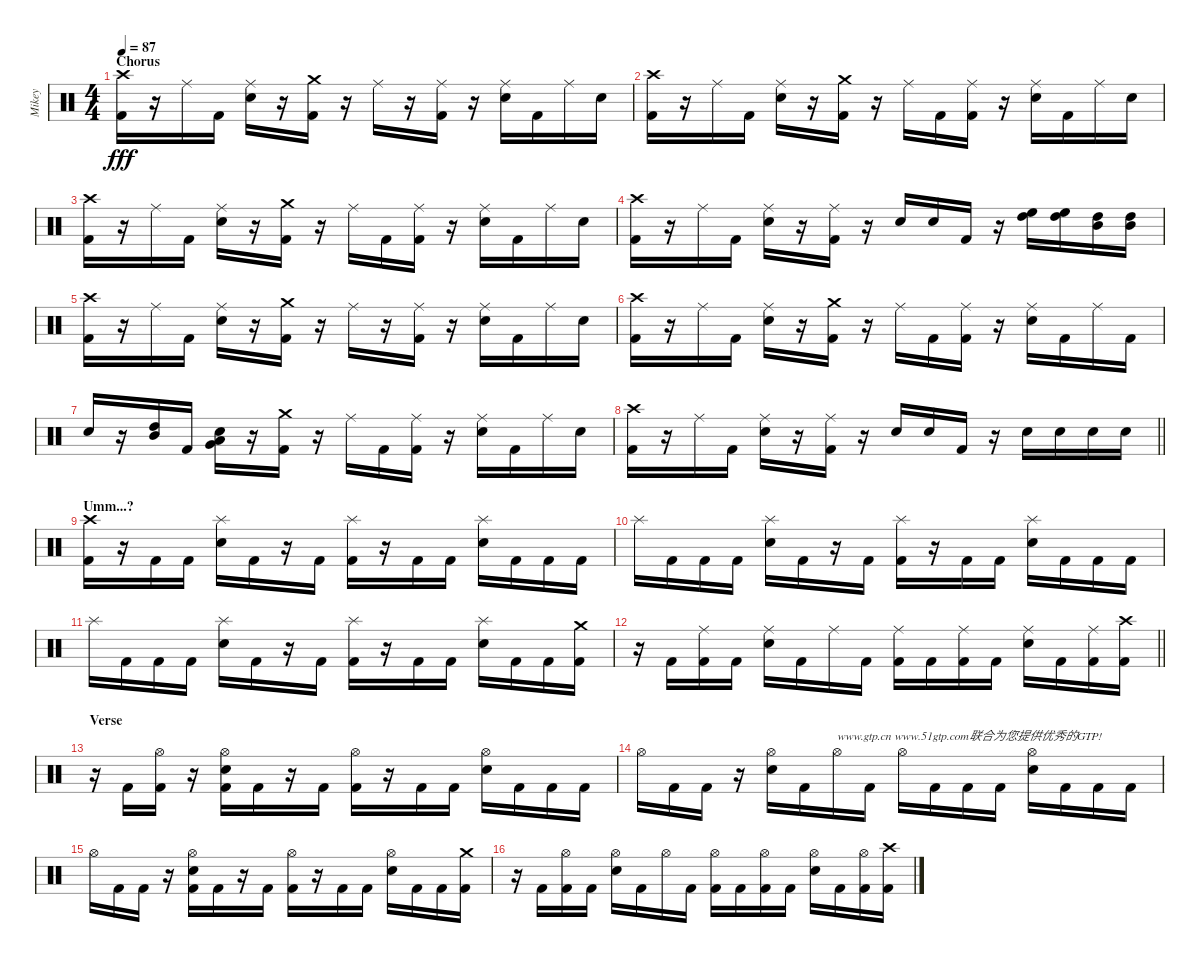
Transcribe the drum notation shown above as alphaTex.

\track ("Mikey" "Mikey") {instrument percussion}
\staff {score}
\articulation defaults
\ts (4 4)
\section ("" "Chorus")
\tempo 87
\clef neutral
\ks c
("Kick (hit) 2" "Crash high (hit)").16{dy fff} r.16 "Ride (middle)".16 "Kick (hit) 2".16 ("Electric Snare (hit)" "Ride (middle)").16 r.16 ("Crash medium (hit)" "Kick (hit) 2").16 r.16 "Ride (middle)".16 r.16 ("Kick (hit) 2" "Ride (middle)").16 r.16 ("Electric Snare (hit)" "Ride (middle)").16 "Kick (hit) 2".16 "Ride (middle)".16 "Electric Snare (hit)".16 |
("Kick (hit) 2" "Crash high (hit)").16 r.16 "Ride (middle)".16 "Kick (hit) 2".16 ("Electric Snare (hit)" "Ride (middle)").16 r.16 ("Crash medium (hit)" "Kick (hit) 2").16 r.16 "Ride (middle)".16 "Kick (hit) 2".16 ("Kick (hit) 2" "Ride (middle)").16 r.16 ("Electric Snare (hit)" "Ride (middle)").16 "Kick (hit) 2".16 "Ride (middle)".16 "Electric Snare (hit)".16 |
("Kick (hit) 2" "Crash high (hit)").16 r.16 "Ride (middle)".16 "Kick (hit) 2".16 ("Ride (middle)" "Electric Snare (hit)").16 r.16 ("Crash medium (hit)" "Kick (hit) 2").16 r.16 "Ride (middle)".16 "Kick (hit) 2".16 ("Ride (middle)" "Kick (hit) 2").16 r.16 ("Electric Snare (hit)" "Ride (middle)").16 "Kick (hit) 2".16 "Ride (middle)".16 "Electric Snare (hit)".16 |
("Kick (hit) 2" "Crash high (hit)").16 r.16 "Ride (middle)".16 "Kick (hit) 2".16 ("Electric Snare (hit)" "Ride (middle)").16 r.16 ("Kick (hit) 2" "Ride (middle)").16 r.16 "Electric Snare (hit)".16 "Electric Snare (hit)".16 "Kick (hit) 2".16 r.16 ("High Floor Tom (hit)" "High Tom (hit)").16 ("High Floor Tom (hit)" "High Tom (hit)").16 ("High Tom (hit)" "Mid Tom (hit)").16 ("High Tom (hit)" "Mid Tom (hit)").16 |
("Kick (hit) 2" "Crash high (hit)").16 r.16 "Ride (middle)".16 "Kick (hit) 2".16 ("Electric Snare (hit)" "Ride (middle)").16 r.16 ("Crash medium (hit)" "Kick (hit) 2").16 r.16 "Ride (middle)".16 r.16 ("Kick (hit) 2" "Ride (middle)").16 r.16 ("Electric Snare (hit)" "Ride (middle)").16 "Kick (hit) 2".16 "Ride (middle)".16 "Electric Snare (hit)".16 |
("Kick (hit) 2" "Crash high (hit)").16 r.16 "Ride (middle)".16 "Kick (hit) 2".16 ("Electric Snare (hit)" "Ride (middle)").16 r.16 ("Crash medium (hit)" "Kick (hit) 2").16 r.16 "Ride (middle)".16 "Kick (hit) 2".16 ("Kick (hit) 2" "Ride (middle)").16 r.16 ("Electric Snare (hit)" "Ride (middle)").16 "Kick (hit) 2".16 "Ride (middle)".16 "Kick (hit) 2".16 |
"Electric Snare (hit)".16 r.16 ("High Tom (hit)" "Mid Tom (hit)").16 "Kick (hit) 2".16 ("Low Tom (hit)" "Very Low Tom (hit)" "Electric Snare (hit)").16 r.16 ("Crash medium (hit)" "Kick (hit) 2").16 r.16 "Ride (middle)".16 "Kick (hit) 2".16 ("Ride (middle)" "Kick (hit) 2").16 r.16 ("Electric Snare (hit)" "Ride (middle)").16 "Kick (hit) 2".16 "Ride (middle)".16 "Electric Snare (hit)".16 |
\barLineRight lightlight
("Kick (hit) 2" "Crash high (hit)").16 r.16 "Ride (middle)".16 "Kick (hit) 2".16 ("Ride (middle)" "Electric Snare (hit)").16 r.16 ("Ride (middle)" "Kick (hit) 2").16 r.16 "Electric Snare (hit)".16 "Electric Snare (hit)".16 "Kick (hit) 2".16 r.16 "Electric Snare (hit)".16 "Electric Snare (hit)".16 "Electric Snare (hit)".16 "Electric Snare (hit)".16 |
\section ("" "Umm...?")
("Crash high (hit)" "Kick (hit) 2").16 r.16 "Kick (hit) 2".16 "Kick (hit) 2".16 ("Electric Snare (hit)" "Splash (hit)").16 "Kick (hit) 2".16 r.16 "Kick (hit) 2".16 ("Kick (hit) 2" "Splash (hit)").16 r.16 "Kick (hit) 2".16 "Kick (hit) 2".16 ("Electric Snare (hit)" "Splash (hit)").16 "Kick (hit) 2".16 "Kick (hit) 2".16 "Kick (hit) 2".16 |
"Splash (hit)".16 "Kick (hit) 2".16 "Kick (hit) 2".16 "Kick (hit) 2".16 ("Electric Snare (hit)" "Splash (hit)").16 "Kick (hit) 2".16 r.16 "Kick (hit) 2".16 ("Kick (hit) 2" "Splash (hit)").16 r.16 "Kick (hit) 2".16 "Kick (hit) 2".16 ("Electric Snare (hit)" "Splash (hit)").16 "Kick (hit) 2".16 "Kick (hit) 2".16 "Kick (hit) 2".16 |
"Splash (hit)".16 "Kick (hit) 2".16 "Kick (hit) 2".16 "Kick (hit) 2".16 ("Splash (hit)" "Electric Snare (hit)").16 "Kick (hit) 2".16 r.16 "Kick (hit) 2".16 ("Splash (hit)" "Kick (hit) 2").16 r.16 "Kick (hit) 2".16 "Kick (hit) 2".16 ("Splash (hit)" "Electric Snare (hit)").16 "Kick (hit) 2".16 "Kick (hit) 2".16 ("Crash medium (hit)" "Kick (hit) 2").16 |
\barLineRight lightlight
r.16 "Kick (hit) 2".16 ("Kick (hit) 2" "Ride (middle)").16 "Kick (hit) 2".16 ("Electric Snare (hit)" "Ride (middle)").16 "Kick (hit) 2".16 "Ride (middle)".16 "Kick (hit) 2".16 ("Kick (hit) 2" "Ride (middle)").16 "Kick (hit) 2".16 ("Kick (hit) 2" "Ride (middle)").16 "Kick (hit) 2".16 ("Ride (middle)" "Electric Snare (hit)").16 "Kick (hit) 2".16 ("Kick (hit) 2" "Ride (middle)").16 ("Crash high (hit)" "Kick (hit) 2").16 |
\section ("" "Verse")
r.16 "Kick (hit) 2".16 ("Hi-Hat (open)" "Kick (hit) 2").16 r.16 ("Hi-Hat (open)" "Kick (hit) 2" "Electric Snare (hit)").16 "Kick (hit) 2".16 r.16 "Kick (hit) 2".16 ("Hi-Hat (open)" "Kick (hit) 2").16 r.16 "Kick (hit) 2".16 "Kick (hit) 2".16 ("Hi-Hat (open)" "Electric Snare (hit)").16 "Kick (hit) 2".16 "Kick (hit) 2".16 "Kick (hit) 2".16 |
"Hi-Hat (open)".16 "Kick (hit) 2".16 "Kick (hit) 2".16 r.16 ("Electric Snare (hit)" "Hi-Hat (open)").16 "Kick (hit) 2".16 "Hi-Hat (open)".16{txt "www.gtp.cn www.51gtp.com联合为您提供优秀的GTP!"} "Kick (hit) 2".16 "Hi-Hat (open)".16 "Kick (hit) 2".16 "Kick (hit) 2".16 "Kick (hit) 2".16 ("Electric Snare (hit)" "Hi-Hat (open)").16 "Kick (hit) 2".16 "Kick (hit) 2".16 "Kick (hit) 2".16 |
"Hi-Hat (open)".16 "Kick (hit) 2".16 "Kick (hit) 2".16 r.16 ("Hi-Hat (open)" "Kick (hit) 2" "Electric Snare (hit)").16 "Kick (hit) 2".16 r.16 "Kick (hit) 2".16 ("Hi-Hat (open)" "Kick (hit) 2").16 r.16 "Kick (hit) 2".16 "Kick (hit) 2".16 ("Hi-Hat (open)" "Electric Snare (hit)").16 "Kick (hit) 2".16 "Kick (hit) 2".16 ("Crash medium (hit)" "Kick (hit) 2").16 |
r.16 "Kick (hit) 2".16 ("Hi-Hat (open)" "Kick (hit) 2").16 "Kick (hit) 2".16 ("Hi-Hat (open)" "Electric Snare (hit)").16 "Kick (hit) 2".16 "Hi-Hat (open)".16 "Kick (hit) 2".16 ("Hi-Hat (open)" "Kick (hit) 2").16 "Kick (hit) 2".16 ("Hi-Hat (open)" "Kick (hit) 2").16 "Kick (hit) 2".16 ("Hi-Hat (open)" "Electric Snare (hit)").16 "Kick (hit) 2".16 ("Hi-Hat (open)" "Kick (hit) 2").16 ("Crash high (hit)" "Kick (hit) 2").16
